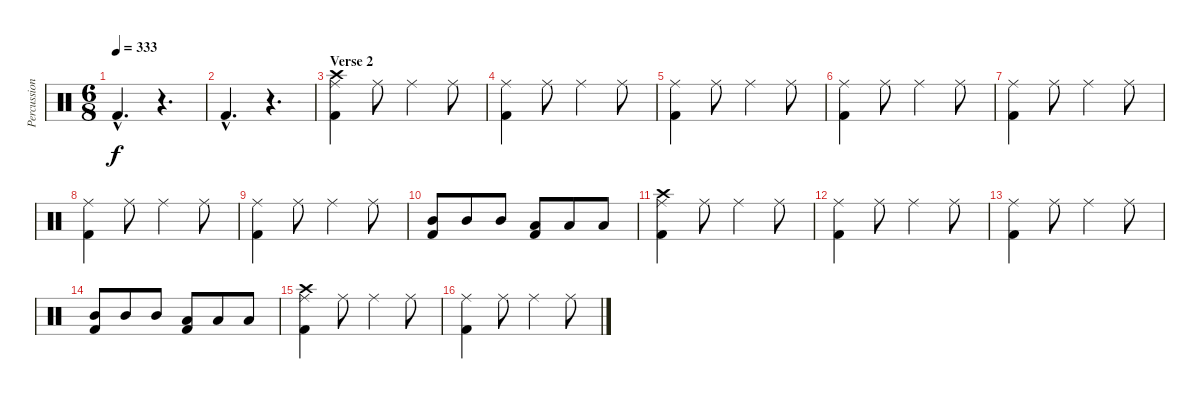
\track ("Percussion" "Percussion") {instrument percussion}
\staff {score}
\articulation defaults
\ts (6 8)
\tempo 333
\clef neutral
\ks c "Kick (hit) 2"{hac}.4{d dy f}
r.4{d} |
"Kick (hit) 2"{hac}.4{d} r.4{d} |
\section ("" "Verse 2")
("Crash high (hit)" "Ride (middle)" "Kick (hit) 2").4 "Ride (middle)".8 "Ride (middle)".4 "Ride (middle)".8 |
("Ride (middle)" "Kick (hit) 2").4 "Ride (middle)".8 "Ride (middle)".4 "Ride (middle)".8 |
("Ride (middle)" "Kick (hit) 2").4 "Ride (middle)".8 "Ride (middle)".4 "Ride (middle)".8 |
("Ride (middle)" "Kick (hit) 2").4 "Ride (middle)".8 "Ride (middle)".4 "Ride (middle)".8 |
("Ride (middle)" "Kick (hit) 2").4 "Ride (middle)".8 "Ride (middle)".4 "Ride (middle)".8 |
("Ride (middle)" "Kick (hit) 2").4 "Ride (middle)".8 "Ride (middle)".4 "Ride (middle)".8 |
("Ride (middle)" "Kick (hit) 2").4 "Ride (middle)".8 "Ride (middle)".4 "Ride (middle)".8 |
("Mid Tom (hit)" "Kick (hit) 2").8 "Mid Tom (hit)".8 "Mid Tom (hit)".8 ("Low Tom (hit)" "Kick (hit) 2").8 "Low Tom (hit)".8 "Low Tom (hit)".8 |
("Crash high (hit)" "Ride (middle)" "Kick (hit) 2").4 "Ride (middle)".8 "Ride (middle)".4 "Ride (middle)".8 |
("Ride (middle)" "Kick (hit) 2").4 "Ride (middle)".8 "Ride (middle)".4 "Ride (middle)".8 |
("Ride (middle)" "Kick (hit) 2").4 "Ride (middle)".8 "Ride (middle)".4 "Ride (middle)".8 |
("Mid Tom (hit)" "Kick (hit) 2").8 "Mid Tom (hit)".8 "Mid Tom (hit)".8 ("Low Tom (hit)" "Kick (hit) 2").8 "Low Tom (hit)".8 "Low Tom (hit)".8 |
("Crash high (hit)" "Ride (middle)" "Kick (hit) 2").4 "Ride (middle)".8 "Ride (middle)".4 "Ride (middle)".8 |
("Ride (middle)" "Kick (hit) 2").4 "Ride (middle)".8 "Ride (middle)".4 "Ride (middle)".8
